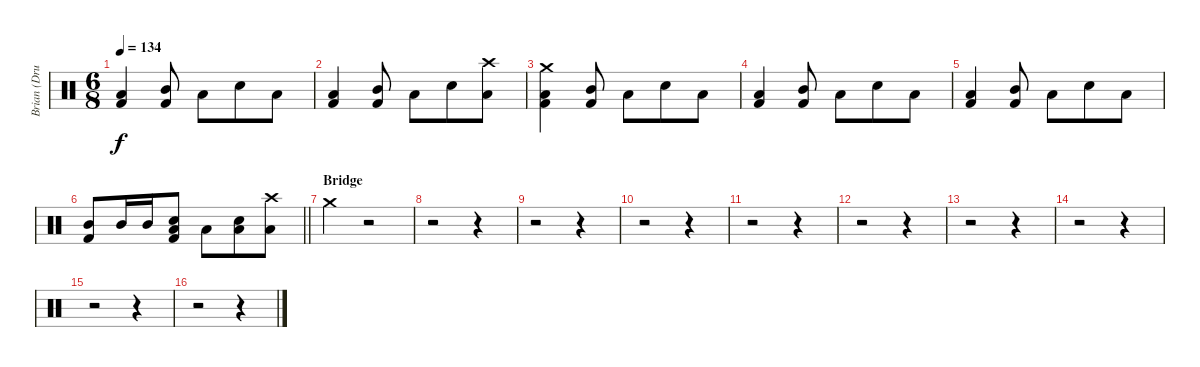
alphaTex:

\track ("Brian (Drums)" "Brian (Dru") {instrument percussion}
\staff {score}
\articulation defaults
\ts (6 8)
\tempo 134
\clef neutral
\ks c
("Low Tom (hit)" "Kick (hit) 2").4{dy f} ("Mid Tom (hit)" "Kick (hit) 2").8 "Low Tom (hit)".8 "Electric Snare (hit)".8 "Low Tom (hit)".8 |
("Low Tom (hit)" "Kick (hit) 2").4 ("Mid Tom (hit)" "Kick (hit) 2").8 "Low Tom (hit)".8 "Electric Snare (hit)".8 ("Crash high (hit)" "Low Tom (hit)").8 |
("Crash medium (hit)" "Low Tom (hit)" "Kick (hit) 2").4 ("Mid Tom (hit)" "Kick (hit) 2").8 "Low Tom (hit)".8 "Electric Snare (hit)".8 "Low Tom (hit)".8 |
("Low Tom (hit)" "Kick (hit) 2").4 ("Mid Tom (hit)" "Kick (hit) 2").8 "Low Tom (hit)".8 "Electric Snare (hit)".8 "Low Tom (hit)".8 |
("Low Tom (hit)" "Kick (hit) 2").4 ("Mid Tom (hit)" "Kick (hit) 2").8 "Low Tom (hit)".8 "Electric Snare (hit)".8 "Low Tom (hit)".8 |
\barLineRight lightlight
("Mid Tom (hit)" "Kick (hit) 2").8 "Mid Tom (hit)".16 "Mid Tom (hit)".16 ("Low Tom (hit)" "Electric Snare (hit)" "Kick (hit) 2").8 "Low Tom (hit)".8 ("Low Tom (hit)" "Electric Snare (hit)").8 ("Crash high (hit)" "Low Tom (hit)").8 |
\section ("" "Bridge")
"Crash medium (hit)".4 r.2 |
r.2 r.4 |
r.2 r.4 |
r.2 r.4 |
r.2 r.4 |
r.2 r.4 |
r.2 r.4 |
r.2 r.4 |
r.2 r.4 |
r.2 r.4
